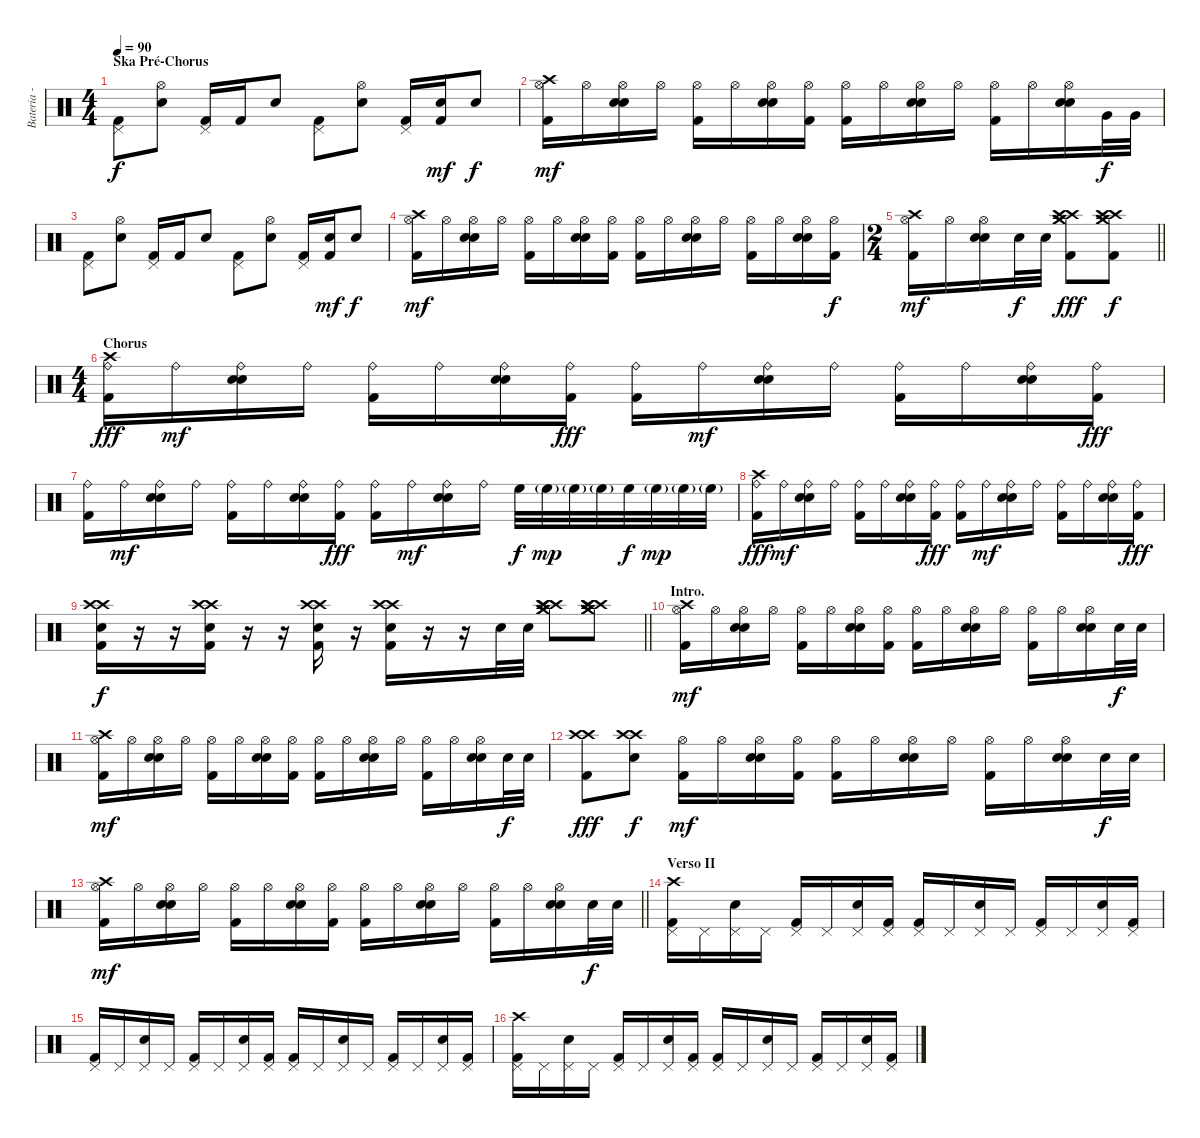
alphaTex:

\track ("Bateria - Larzon" "Bateria - ") {instrument percussion}
\staff {score}
\articulation defaults
\ts (4 4)
\section ("" "Ska Pré-Chorus")
\tempo 90
\clef neutral
\ks c
("Kick (hit) 2" "Pedal Hi-Hat (hit)").8{dy f} ("Snare (hit) 2" "Hi-Hat (open)").8 ("Kick (hit) 2" "Pedal Hi-Hat (hit)").16 "Kick (hit) 2".16 "Snare (hit) 2".8 ("Kick (hit) 2" "Pedal Hi-Hat (hit)").8 ("Snare (hit) 2" "Hi-Hat (open)").8 ("Kick (hit) 2" "Pedal Hi-Hat (hit)").16 ("Kick (hit) 2" "Snare (hit) 2").16{dy mf} "Snare (hit) 2".8{dy f} |
("Kick (hit) 2" "Crash high (hit)" "Hi-Hat (open)").16{dy mf} "Hi-Hat (open)".16 ("Snare (hit) 2" "Snare (hit) 2" "Hi-Hat (open)").16 "Hi-Hat (open)".16 ("Kick (hit) 2" "Hi-Hat (open)").16 "Hi-Hat (open)".16 ("Snare (hit) 2" "Snare (hit) 2" "Hi-Hat (open)").16 ("Kick (hit) 2" "Hi-Hat (open)").16 ("Kick (hit) 2" "Hi-Hat (open)").16 "Hi-Hat (open)".16 ("Snare (hit) 2" "Snare (hit) 2" "Hi-Hat (open)").16 "Hi-Hat (open)".16 ("Kick (hit) 2" "Hi-Hat (open)").16 "Hi-Hat (open)".16 ("Snare (hit) 2" "Snare (hit) 2" "Hi-Hat (open)").16 "Very Low Tom (hit)".32{dy f} "Very Low Tom (hit)".32 |
("Kick (hit) 2" "Pedal Hi-Hat (hit)").8 ("Snare (hit) 2" "Hi-Hat (open)").8 ("Kick (hit) 2" "Pedal Hi-Hat (hit)").16 "Kick (hit) 2".16 "Snare (hit) 2".8 ("Kick (hit) 2" "Pedal Hi-Hat (hit)").8 ("Snare (hit) 2" "Hi-Hat (open)").8 ("Kick (hit) 2" "Pedal Hi-Hat (hit)").16 ("Kick (hit) 2" "Snare (hit) 2").16{dy mf} "Snare (hit) 2".8{dy f} |
("Kick (hit) 2" "Crash high (hit)" "Hi-Hat (open)").16{dy mf} "Hi-Hat (open)".16 ("Snare (hit) 2" "Snare (hit) 2" "Hi-Hat (open)").16 "Hi-Hat (open)".16 ("Kick (hit) 2" "Hi-Hat (open)").16 "Hi-Hat (open)".16 ("Snare (hit) 2" "Snare (hit) 2" "Hi-Hat (open)").16 ("Kick (hit) 2" "Hi-Hat (open)").16 ("Kick (hit) 2" "Hi-Hat (open)").16 "Hi-Hat (open)".16 ("Snare (hit) 2" "Snare (hit) 2" "Hi-Hat (open)").16 "Hi-Hat (open)".16 ("Kick (hit) 2" "Hi-Hat (open)").16 "Hi-Hat (open)".16 ("Snare (hit) 2" "Snare (hit) 2" "Hi-Hat (open)").16 ("Kick (hit) 2" "Hi-Hat (open)").16{dy f} |
\ts (2 4)
\barLineRight lightlight
("Kick (hit) 2" "Crash high (hit)" "Hi-Hat (open)").16{dy mf} "Hi-Hat (open)".16 ("Snare (hit) 2" "Snare (hit) 2" "Hi-Hat (open)").16 "Snare (hit) 2".32{dy f} "Snare (hit) 2".32 ("Crash high (hit)" "Crash high (hit)" "Crash medium (hit)" "Crash medium (hit)" "Kick (hit) 2").8{dy fff} ("Crash high (hit)" "Crash high (hit)" "Crash medium (hit)" "Crash medium (hit)" "Kick (hit) 2").8{dy f} |
\ts (4 4)
\section ("" "Chorus")
("Kick (hit) 2" "Crash high (hit)" "Ride (bell)").16{dy fff} "Ride (bell)".16{dy mf} ("Snare (hit) 2" "Snare (hit) 2" "Ride (bell)").16 "Ride (bell)".16 ("Kick (hit) 2" "Ride (bell)").16 "Ride (bell)".16 ("Snare (hit) 2" "Snare (hit) 2" "Ride (bell)").16 ("Kick (hit) 2" "Ride (bell)").16{dy fff} ("Kick (hit) 2" "Ride (bell)").16 "Ride (bell)".16{dy mf} ("Snare (hit) 2" "Snare (hit) 2" "Ride (bell)").16 "Ride (bell)".16 ("Kick (hit) 2" "Ride (bell)").16 "Ride (bell)".16 ("Snare (hit) 2" "Snare (hit) 2" "Ride (bell)").16 ("Kick (hit) 2" "Ride (bell)").16{dy fff} |
("Kick (hit) 2" "Ride (bell)").16 "Ride (bell)".16{dy mf} ("Snare (hit) 2" "Snare (hit) 2" "Ride (bell)").16 "Ride (bell)".16 ("Kick (hit) 2" "Ride (bell)").16 "Ride (bell)".16 ("Snare (hit) 2" "Snare (hit) 2" "Ride (bell)").16 ("Kick (hit) 2" "Ride (bell)").16{dy fff} ("Kick (hit) 2" "Ride (bell)").16 "Ride (bell)".16{dy mf} ("Snare (hit) 2" "Snare (hit) 2" "Ride (bell)").16 "Ride (bell)".16 "High Floor Tom (hit)".32{dy f} "High Floor Tom (hit)"{g}.32{dy mp} "High Floor Tom (hit)"{g}.32 "High Floor Tom (hit)"{g}.32 "High Floor Tom (hit)".32{dy f} "High Floor Tom (hit)"{g}.32{dy mp} "High Floor Tom (hit)"{g}.32 "High Floor Tom (hit)"{g}.32 |
("Kick (hit) 2" "Crash high (hit)" "Ride (bell)").16{dy fff} "Ride (bell)".16{dy mf} ("Snare (hit) 2" "Snare (hit) 2" "Ride (bell)").16 "Ride (bell)".16 ("Kick (hit) 2" "Ride (bell)").16 "Ride (bell)".16 ("Snare (hit) 2" "Snare (hit) 2" "Ride (bell)").16 ("Kick (hit) 2" "Ride (bell)").16{dy fff} ("Kick (hit) 2" "Ride (bell)").16 "Ride (bell)".16{dy mf} ("Snare (hit) 2" "Snare (hit) 2" "Ride (bell)").16 "Ride (bell)".16 ("Kick (hit) 2" "Ride (bell)").16 "Ride (bell)".16 ("Snare (hit) 2" "Snare (hit) 2" "Ride (bell)").16 ("Kick (hit) 2" "Ride (bell)").16{dy fff} |
\barLineRight lightlight
("Crash high (hit)" "Crash high (hit)" "Snare (hit) 2" "Kick (hit) 2").16{dy f} r.16 r.16 ("Crash high (hit)" "Crash high (hit)" "Snare (hit) 2" "Kick (hit) 2").16 r.16 r.16 ("Crash high (hit)" "Crash high (hit)" "Snare (hit) 2" "Kick (hit) 2").16 r.16 ("Crash high (hit)" "Crash high (hit)" "Snare (hit) 2" "Kick (hit) 2").16 r.16 r.16 "Snare (hit) 2".32 "Snare (hit) 2".32 ("Crash high (hit)" "Crash high (hit)" "Crash high (hit)" "Crash medium (hit)" "Crash medium (hit)").8 ("Crash high (hit)" "Crash high (hit)" "Crash high (hit)" "Crash medium (hit)" "Crash medium (hit)").8 |
\section ("" "Intro.")
("Kick (hit) 2" "Crash high (hit)" "Hi-Hat (open)").16{dy mf} "Hi-Hat (open)".16 ("Snare (hit) 2" "Snare (hit) 2" "Hi-Hat (open)").16 "Hi-Hat (open)".16 ("Kick (hit) 2" "Hi-Hat (open)").16 "Hi-Hat (open)".16 ("Snare (hit) 2" "Snare (hit) 2" "Hi-Hat (open)").16 ("Kick (hit) 2" "Hi-Hat (open)").16 ("Kick (hit) 2" "Hi-Hat (open)").16 "Hi-Hat (open)".16 ("Snare (hit) 2" "Snare (hit) 2" "Hi-Hat (open)").16 "Hi-Hat (open)".16 ("Kick (hit) 2" "Hi-Hat (open)").16 "Hi-Hat (open)".16 ("Snare (hit) 2" "Snare (hit) 2" "Hi-Hat (open)").16 "Snare (hit) 2".32{dy f} "Snare (hit) 2".32 |
("Kick (hit) 2" "Crash high (hit)" "Hi-Hat (open)").16{dy mf} "Hi-Hat (open)".16 ("Snare (hit) 2" "Snare (hit) 2" "Hi-Hat (open)").16 "Hi-Hat (open)".16 ("Kick (hit) 2" "Hi-Hat (open)").16 "Hi-Hat (open)".16 ("Snare (hit) 2" "Snare (hit) 2" "Hi-Hat (open)").16 ("Kick (hit) 2" "Hi-Hat (open)").16 ("Kick (hit) 2" "Hi-Hat (open)").16 "Hi-Hat (open)".16 ("Snare (hit) 2" "Snare (hit) 2" "Hi-Hat (open)").16 "Hi-Hat (open)".16 ("Kick (hit) 2" "Hi-Hat (open)").16 "Hi-Hat (open)".16 ("Snare (hit) 2" "Snare (hit) 2" "Hi-Hat (open)").16 "Snare (hit) 2".32{dy f} "Snare (hit) 2".32 |
("Kick (hit) 2" "Crash high (hit)" "Crash high (hit)").8{dy fff} ("Snare (hit) 2" "Crash high (hit)" "Crash high (hit)").8{dy f} ("Kick (hit) 2" "Hi-Hat (open)").16{dy mf} "Hi-Hat (open)".16 ("Snare (hit) 2" "Snare (hit) 2" "Hi-Hat (open)").16 ("Kick (hit) 2" "Hi-Hat (open)").16 ("Kick (hit) 2" "Hi-Hat (open)").16 "Hi-Hat (open)".16 ("Snare (hit) 2" "Snare (hit) 2" "Hi-Hat (open)").16 "Hi-Hat (open)".16 ("Kick (hit) 2" "Hi-Hat (open)").16 "Hi-Hat (open)".16 ("Snare (hit) 2" "Snare (hit) 2" "Hi-Hat (open)").16 "Snare (hit) 2".32{dy f} "Snare (hit) 2".32 |
\barLineRight lightlight
("Kick (hit) 2" "Crash high (hit)" "Hi-Hat (open)").16{dy mf} "Hi-Hat (open)".16 ("Snare (hit) 2" "Snare (hit) 2" "Hi-Hat (open)").16 "Hi-Hat (open)".16 ("Kick (hit) 2" "Hi-Hat (open)").16 "Hi-Hat (open)".16 ("Snare (hit) 2" "Snare (hit) 2" "Hi-Hat (open)").16 ("Kick (hit) 2" "Hi-Hat (open)").16 ("Kick (hit) 2" "Hi-Hat (open)").16 "Hi-Hat (open)".16 ("Snare (hit) 2" "Snare (hit) 2" "Hi-Hat (open)").16 "Hi-Hat (open)".16 ("Kick (hit) 2" "Hi-Hat (open)").16 "Hi-Hat (open)".16 ("Snare (hit) 2" "Snare (hit) 2" "Hi-Hat (open)").16 "Snare (hit) 2".32{dy f} "Snare (hit) 2".32 |
\section ("" "Verso II")
("Kick (hit) 2" "Pedal Hi-Hat (hit)" "Crash high (hit)").16 "Pedal Hi-Hat (hit)".16 ("Snare (hit) 2" "Pedal Hi-Hat (hit)").16 "Pedal Hi-Hat (hit)".16 ("Kick (hit) 2" "Pedal Hi-Hat (hit)").16 "Pedal Hi-Hat (hit)".16 ("Snare (hit) 2" "Pedal Hi-Hat (hit)").16 ("Kick (hit) 2" "Pedal Hi-Hat (hit)").16 ("Kick (hit) 2" "Pedal Hi-Hat (hit)").16 "Pedal Hi-Hat (hit)".16 ("Snare (hit) 2" "Pedal Hi-Hat (hit)").16 "Pedal Hi-Hat (hit)".16 ("Kick (hit) 2" "Pedal Hi-Hat (hit)").16 "Pedal Hi-Hat (hit)".16 ("Snare (hit) 2" "Pedal Hi-Hat (hit)").16 ("Kick (hit) 2" "Pedal Hi-Hat (hit)").16 |
("Kick (hit) 2" "Pedal Hi-Hat (hit)").16 "Pedal Hi-Hat (hit)".16 ("Snare (hit) 2" "Pedal Hi-Hat (hit)").16 "Pedal Hi-Hat (hit)".16 ("Kick (hit) 2" "Pedal Hi-Hat (hit)").16 "Pedal Hi-Hat (hit)".16 ("Snare (hit) 2" "Pedal Hi-Hat (hit)").16 ("Kick (hit) 2" "Pedal Hi-Hat (hit)").16 ("Kick (hit) 2" "Pedal Hi-Hat (hit)").16 "Pedal Hi-Hat (hit)".16 ("Snare (hit) 2" "Pedal Hi-Hat (hit)").16 "Pedal Hi-Hat (hit)".16 ("Kick (hit) 2" "Pedal Hi-Hat (hit)").16 "Pedal Hi-Hat (hit)".16 ("Snare (hit) 2" "Pedal Hi-Hat (hit)").16 ("Kick (hit) 2" "Pedal Hi-Hat (hit)").16 |
("Kick (hit) 2" "Pedal Hi-Hat (hit)" "Crash high (hit)").16 "Pedal Hi-Hat (hit)".16 ("Snare (hit) 2" "Pedal Hi-Hat (hit)").16 "Pedal Hi-Hat (hit)".16 ("Kick (hit) 2" "Pedal Hi-Hat (hit)").16 "Pedal Hi-Hat (hit)".16 ("Snare (hit) 2" "Pedal Hi-Hat (hit)").16 ("Kick (hit) 2" "Pedal Hi-Hat (hit)").16 ("Kick (hit) 2" "Pedal Hi-Hat (hit)").16 "Pedal Hi-Hat (hit)".16 ("Snare (hit) 2" "Pedal Hi-Hat (hit)").16 "Pedal Hi-Hat (hit)".16 ("Kick (hit) 2" "Pedal Hi-Hat (hit)").16 "Pedal Hi-Hat (hit)".16 ("Snare (hit) 2" "Pedal Hi-Hat (hit)").16 ("Kick (hit) 2" "Pedal Hi-Hat (hit)").16
